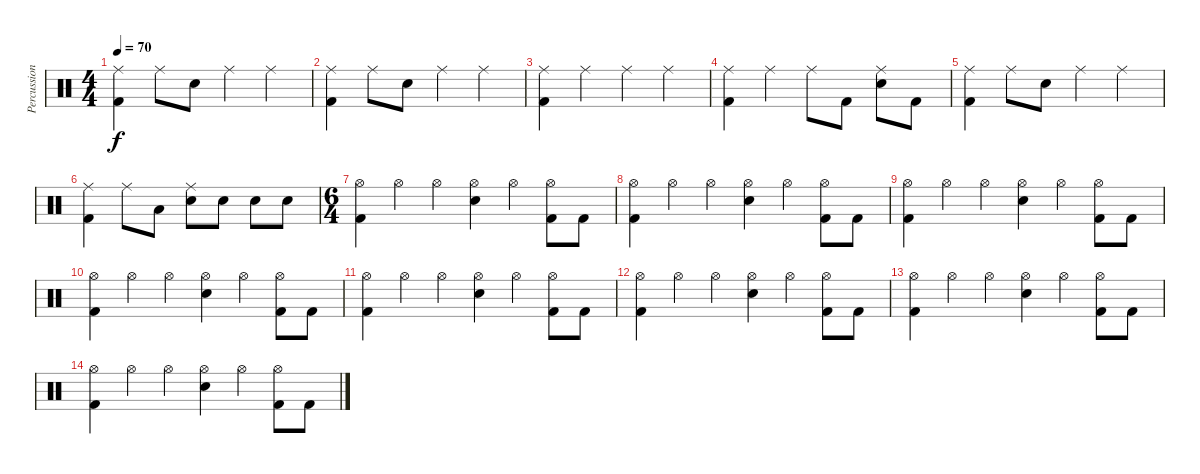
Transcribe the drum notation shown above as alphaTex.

\track ("Percussion" "Percussion") {instrument percussion}
\staff {score}
\articulation defaults
\ts (4 4)
\tempo 70
\clef neutral
\ks c
("Ride (middle)" "Kick (hit) 2").4{dy f} "Ride (middle)".8 "Electric Snare (hit)".8 "Ride (middle)".4 "Ride (middle)".4 |
("Ride (middle)" "Kick (hit) 2").4 "Ride (middle)".8 "Electric Snare (hit)".8 "Ride (middle)".4 "Ride (middle)".4 |
("Ride (middle)" "Kick (hit) 2").4 "Ride (middle)".4 "Ride (middle)".4 "Ride (middle)".4 |
("Ride (middle)" "Kick (hit) 2").4 "Ride (middle)".4 "Ride (middle)".8 "Kick (hit) 2".8 ("Ride (middle)" "Electric Snare (hit)").8 "Kick (hit) 2".8 |
("Ride (middle)" "Kick (hit) 2").4 "Ride (middle)".8 "Electric Snare (hit)".8 "Ride (middle)".4 "Ride (middle)".4 |
("Ride (middle)" "Kick (hit) 2").4 "Ride (middle)".8 "Low Tom (hit)".8 ("Ride (middle)" "Electric Snare (hit)").8 "Electric Snare (hit)".8 "Electric Snare (hit)".8 "Electric Snare (hit)".8 |
\ts (6 4)
("Hi-Hat (open)" "Kick (hit) 2").4 "Hi-Hat (open)".4 "Hi-Hat (open)".4 ("Hi-Hat (open)" "Electric Snare (hit)").4 "Hi-Hat (open)".4 ("Hi-Hat (open)" "Kick (hit) 2").8 "Kick (hit) 2".8 |
("Hi-Hat (open)" "Kick (hit) 2").4 "Hi-Hat (open)".4 "Hi-Hat (open)".4 ("Hi-Hat (open)" "Electric Snare (hit)").4 "Hi-Hat (open)".4 ("Hi-Hat (open)" "Kick (hit) 2").8 "Kick (hit) 2".8 |
("Hi-Hat (open)" "Kick (hit) 2").4 "Hi-Hat (open)".4 "Hi-Hat (open)".4 ("Hi-Hat (open)" "Electric Snare (hit)").4 "Hi-Hat (open)".4 ("Hi-Hat (open)" "Kick (hit) 2").8 "Kick (hit) 2".8 |
("Hi-Hat (open)" "Kick (hit) 2").4 "Hi-Hat (open)".4 "Hi-Hat (open)".4 ("Hi-Hat (open)" "Electric Snare (hit)").4 "Hi-Hat (open)".4 ("Hi-Hat (open)" "Kick (hit) 2").8 "Kick (hit) 2".8 |
("Hi-Hat (open)" "Kick (hit) 2").4 "Hi-Hat (open)".4 "Hi-Hat (open)".4 ("Hi-Hat (open)" "Electric Snare (hit)").4 "Hi-Hat (open)".4 ("Hi-Hat (open)" "Kick (hit) 2").8 "Kick (hit) 2".8 |
("Hi-Hat (open)" "Kick (hit) 2").4 "Hi-Hat (open)".4 "Hi-Hat (open)".4 ("Hi-Hat (open)" "Electric Snare (hit)").4 "Hi-Hat (open)".4 ("Hi-Hat (open)" "Kick (hit) 2").8 "Kick (hit) 2".8 |
("Hi-Hat (open)" "Kick (hit) 2").4 "Hi-Hat (open)".4 "Hi-Hat (open)".4 ("Hi-Hat (open)" "Electric Snare (hit)").4 "Hi-Hat (open)".4 ("Hi-Hat (open)" "Kick (hit) 2").8 "Kick (hit) 2".8 |
("Hi-Hat (open)" "Kick (hit) 2").4 "Hi-Hat (open)".4 "Hi-Hat (open)".4 ("Hi-Hat (open)" "Electric Snare (hit)").4 "Hi-Hat (open)".4 ("Hi-Hat (open)" "Kick (hit) 2").8 "Kick (hit) 2".8
